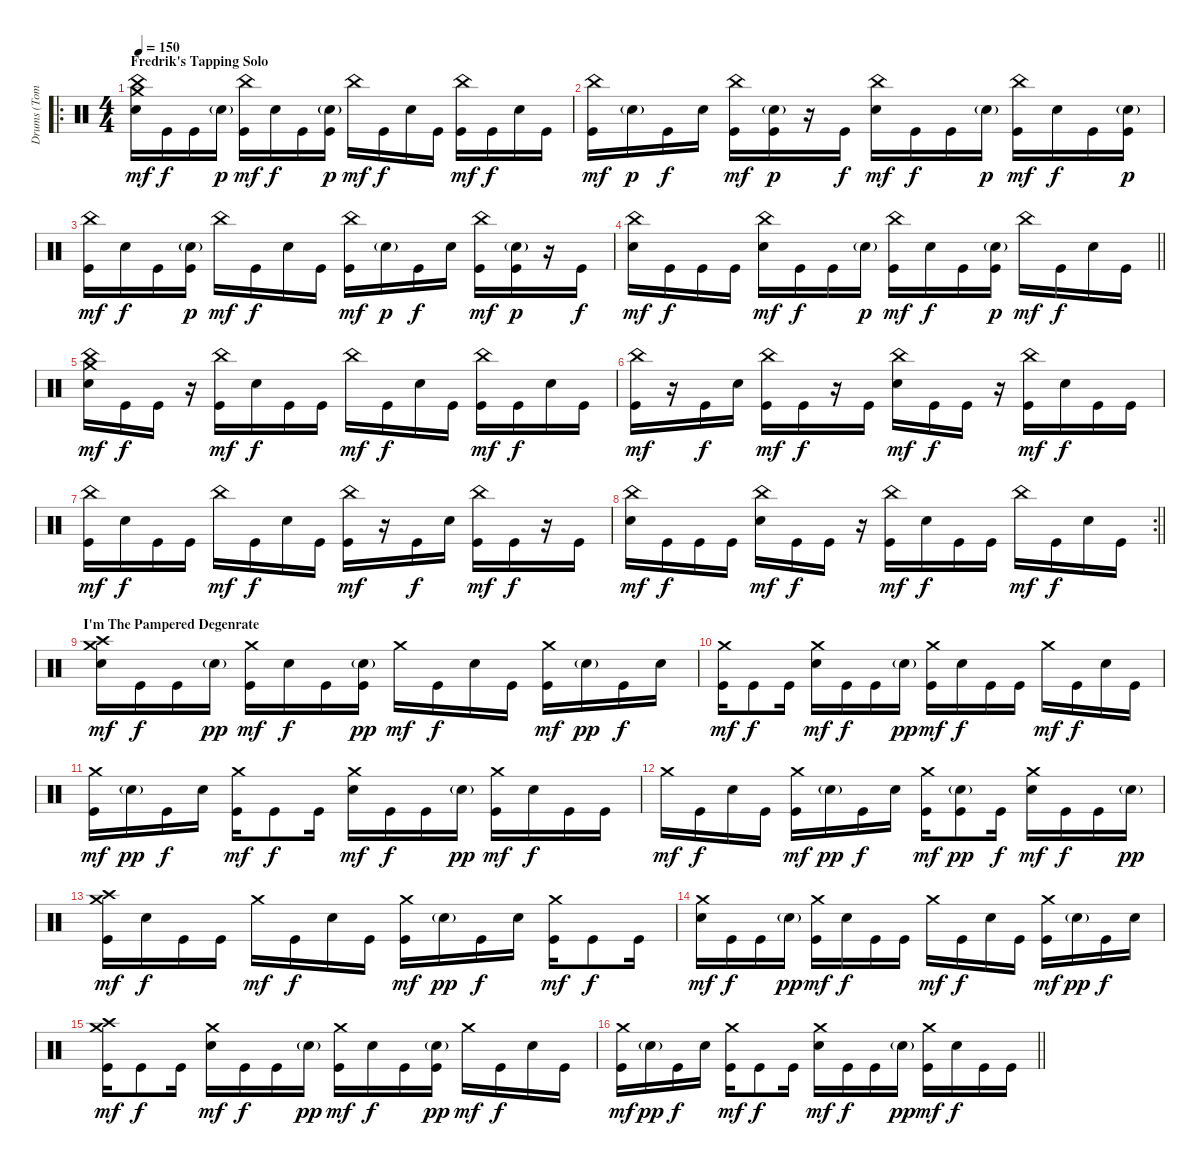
\track ("Drums (Tomas Haake)" "Drums (Tom") {instrument percussion}
\staff {score}
\articulation defaults
\ro
\ts (4 4)
\section ("" "Fredrik's Tapping Solo")
\tempo 150
\clef neutral
\ks c
("China (hit)" "Crash medium (hit)" "Electric Snare (hit)").16{dy mf} "Kick (hit)".16{dy f} "Kick (hit)".16 "Electric Snare (hit)"{g}.16{dy p} ("China (hit)" "Kick (hit)").16{dy mf} "Electric Snare (hit)".16{dy f} "Kick (hit)".16 ("Electric Snare (hit)"{g} "Kick (hit)").16{dy p} "China (hit)".16{dy mf} "Kick (hit)".16{dy f} "Electric Snare (hit)".16 "Kick (hit)".16 ("China (hit)" "Kick (hit)").16{dy mf} "Kick (hit)".16{dy f} "Electric Snare (hit)".16 "Kick (hit)".16 |
("China (hit)" "Kick (hit)").16{dy mf} "Electric Snare (hit)"{g}.16{dy p} "Kick (hit)".16{dy f} "Electric Snare (hit)".16 ("China (hit)" "Kick (hit)").16{dy mf} ("Electric Snare (hit)"{g} "Kick (hit)").16{dy p} r.16 "Kick (hit)".16{dy f} ("China (hit)" "Electric Snare (hit)").16{dy mf} "Kick (hit)".16{dy f} "Kick (hit)".16 "Electric Snare (hit)"{g}.16{dy p} ("China (hit)" "Kick (hit)").16{dy mf} "Electric Snare (hit)".16{dy f} "Kick (hit)".16 ("Electric Snare (hit)"{g} "Kick (hit)").16{dy p} |
("China (hit)" "Kick (hit)").16{dy mf} "Electric Snare (hit)".16{dy f} "Kick (hit)".16 ("Electric Snare (hit)"{g} "Kick (hit)").16{dy p} "China (hit)".16{dy mf} "Kick (hit)".16{dy f} "Electric Snare (hit)".16 "Kick (hit)".16 ("China (hit)" "Kick (hit)").16{dy mf} "Electric Snare (hit)"{g}.16{dy p} "Kick (hit)".16{dy f} "Electric Snare (hit)".16 ("China (hit)" "Kick (hit)").16{dy mf} ("Electric Snare (hit)"{g} "Kick (hit)").16{dy p} r.16 "Kick (hit)".16{dy f} |
\barLineRight lightlight
("China (hit)" "Electric Snare (hit)").16{dy mf} "Kick (hit)".16{dy f} "Kick (hit)".16 "Kick (hit)".16 ("China (hit)" "Electric Snare (hit)").16{dy mf} "Kick (hit)".16{dy f} "Kick (hit)".16 "Electric Snare (hit)"{g}.16{dy p} ("China (hit)" "Kick (hit)").16{dy mf} "Electric Snare (hit)".16{dy f} "Kick (hit)".16 ("Electric Snare (hit)"{g} "Kick (hit)").16{dy p} "China (hit)".16{dy mf} "Kick (hit)".16{dy f} "Electric Snare (hit)".16 "Kick (hit)".16 |
("China (hit)" "Crash medium (hit)" "Electric Snare (hit)").16{dy mf} "Kick (hit)".16{dy f} "Kick (hit)".16 r.16 ("China (hit)" "Kick (hit)").16{dy mf} "Electric Snare (hit)".16{dy f} "Kick (hit)".16 "Kick (hit)".16 "China (hit)".16{dy mf} "Kick (hit)".16{dy f} "Electric Snare (hit)".16 "Kick (hit)".16 ("China (hit)" "Kick (hit)").16{dy mf} "Kick (hit)".16{dy f} "Electric Snare (hit)".16 "Kick (hit)".16 |
("China (hit)" "Kick (hit)").16{dy mf} r.16 "Kick (hit)".16{dy f} "Electric Snare (hit)".16 ("China (hit)" "Kick (hit)").16{dy mf} "Kick (hit)".16{dy f} r.16 "Kick (hit)".16 ("China (hit)" "Electric Snare (hit)").16{dy mf} "Kick (hit)".16{dy f} "Kick (hit)".16 r.16 ("China (hit)" "Kick (hit)").16{dy mf} "Electric Snare (hit)".16{dy f} "Kick (hit)".16 "Kick (hit)".16 |
("China (hit)" "Kick (hit)").16{dy mf} "Electric Snare (hit)".16{dy f} "Kick (hit)".16 "Kick (hit)".16 "China (hit)".16{dy mf} "Kick (hit)".16{dy f} "Electric Snare (hit)".16 "Kick (hit)".16 ("China (hit)" "Kick (hit)").16{dy mf} r.16 "Kick (hit)".16{dy f} "Electric Snare (hit)".16 ("China (hit)" "Kick (hit)").16{dy mf} "Kick (hit)".16{dy f} r.16 "Kick (hit)".16 |
\rc 2
\barLineRight lightlight
("China (hit)" "Electric Snare (hit)").16{dy mf} "Kick (hit)".16{dy f} "Kick (hit)".16 "Kick (hit)".16 ("China (hit)" "Electric Snare (hit)").16{dy mf} "Kick (hit)".16{dy f} "Kick (hit)".16 r.16 ("China (hit)" "Kick (hit)").16{dy mf} "Electric Snare (hit)".16{dy f} "Kick (hit)".16 "Kick (hit)".16 "China (hit)".16{dy mf} "Kick (hit)".16{dy f} "Electric Snare (hit)".16 "Kick (hit)".16 |
\section ("" "I'm The Pampered Degenrate")
("Crash medium (hit)" "Crash high (hit)" "Electric Snare (hit)").16{dy mf} "Kick (hit)".16{dy f} "Kick (hit)".16 "Electric Snare (hit)"{g}.16{dy pp} ("Crash medium (hit)" "Kick (hit)").16{dy mf} "Electric Snare (hit)".16{dy f} "Kick (hit)".16 ("Electric Snare (hit)"{g} "Kick (hit)").16{dy pp} "Crash medium (hit)".16{dy mf} "Kick (hit)".16{dy f} "Electric Snare (hit)".16 "Kick (hit)".16 ("Crash medium (hit)" "Kick (hit)").16{dy mf} "Electric Snare (hit)"{g}.16{dy pp} "Kick (hit)".16{dy f} "Electric Snare (hit)".16 |
("Crash medium (hit)" "Kick (hit)").16{dy mf} "Kick (hit)".8{dy f} "Kick (hit)".16 ("Crash medium (hit)" "Electric Snare (hit)").16{dy mf} "Kick (hit)".16{dy f} "Kick (hit)".16 "Electric Snare (hit)"{g}.16{dy pp} ("Crash medium (hit)" "Kick (hit)").16{dy mf} "Electric Snare (hit)".16{dy f} "Kick (hit)".16 "Kick (hit)".16 "Crash medium (hit)".16{dy mf} "Kick (hit)".16{dy f} "Electric Snare (hit)".16 "Kick (hit)".16 |
("Crash medium (hit)" "Kick (hit)").16{dy mf} "Electric Snare (hit)"{g}.16{dy pp} "Kick (hit)".16{dy f} "Electric Snare (hit)".16 ("Crash medium (hit)" "Kick (hit)").16{dy mf} "Kick (hit)".8{dy f} "Kick (hit)".16 ("Crash medium (hit)" "Electric Snare (hit)").16{dy mf} "Kick (hit)".16{dy f} "Kick (hit)".16 "Electric Snare (hit)"{g}.16{dy pp} ("Crash medium (hit)" "Kick (hit)").16{dy mf} "Electric Snare (hit)".16{dy f} "Kick (hit)".16 "Kick (hit)".16 |
"Crash medium (hit)".16{dy mf} "Kick (hit)".16{dy f} "Electric Snare (hit)".16 "Kick (hit)".16 ("Crash medium (hit)" "Kick (hit)").16{dy mf} "Electric Snare (hit)"{g}.16{dy pp} "Kick (hit)".16{dy f} "Electric Snare (hit)".16 ("Crash medium (hit)" "Kick (hit)").16{dy mf} ("Electric Snare (hit)"{g} "Kick (hit)").8{dy pp} "Kick (hit)".16{dy f} ("Crash medium (hit)" "Electric Snare (hit)").16{dy mf} "Kick (hit)".16{dy f} "Kick (hit)".16 "Electric Snare (hit)"{g}.16{dy pp} |
("Crash medium (hit)" "Crash high (hit)" "Kick (hit)").16{dy mf} "Electric Snare (hit)".16{dy f} "Kick (hit)".16 "Kick (hit)".16 "Crash medium (hit)".16{dy mf} "Kick (hit)".16{dy f} "Electric Snare (hit)".16 "Kick (hit)".16 ("Crash medium (hit)" "Kick (hit)").16{dy mf} "Electric Snare (hit)"{g}.16{dy pp} "Kick (hit)".16{dy f} "Electric Snare (hit)".16 ("Crash medium (hit)" "Kick (hit)").16{dy mf} "Kick (hit)".8{dy f} "Kick (hit)".16 |
("Crash medium (hit)" "Electric Snare (hit)").16{dy mf} "Kick (hit)".16{dy f} "Kick (hit)".16 "Electric Snare (hit)"{g}.16{dy pp} ("Crash medium (hit)" "Kick (hit)").16{dy mf} "Electric Snare (hit)".16{dy f} "Kick (hit)".16 "Kick (hit)".16 "Crash medium (hit)".16{dy mf} "Kick (hit)".16{dy f} "Electric Snare (hit)".16 "Kick (hit)".16 ("Crash medium (hit)" "Kick (hit)").16{dy mf} "Electric Snare (hit)"{g}.16{dy pp} "Kick (hit)".16{dy f} "Electric Snare (hit)".16 |
("Crash medium (hit)" "Crash high (hit)" "Kick (hit)").16{dy mf} "Kick (hit)".8{dy f} "Kick (hit)".16 ("Crash medium (hit)" "Electric Snare (hit)").16{dy mf} "Kick (hit)".16{dy f} "Kick (hit)".16 "Electric Snare (hit)"{g}.16{dy pp} ("Crash medium (hit)" "Kick (hit)").16{dy mf} "Electric Snare (hit)".16{dy f} "Kick (hit)".16 ("Electric Snare (hit)"{g} "Kick (hit)").16{dy pp} "Crash medium (hit)".16{dy mf} "Kick (hit)".16{dy f} "Electric Snare (hit)".16 "Kick (hit)".16 |
\barLineRight lightlight
("Crash medium (hit)" "Kick (hit)").16{dy mf} "Electric Snare (hit)"{g}.16{dy pp} "Kick (hit)".16{dy f} "Electric Snare (hit)".16 ("Crash medium (hit)" "Kick (hit)").16{dy mf} "Kick (hit)".8{dy f} "Kick (hit)".16 ("Crash medium (hit)" "Electric Snare (hit)").16{dy mf} "Kick (hit)".16{dy f} "Kick (hit)".16 "Electric Snare (hit)"{g}.16{dy pp} ("Crash medium (hit)" "Kick (hit)").16{dy mf} "Electric Snare (hit)".16{dy f} "Kick (hit)".16 "Kick (hit)".16
